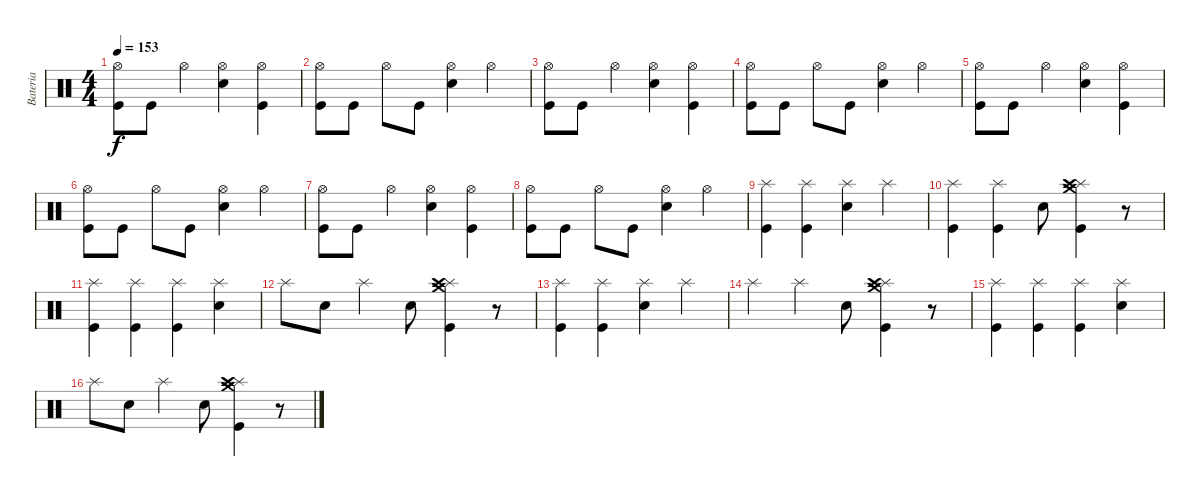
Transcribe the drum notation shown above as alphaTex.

\track ("Bateria" "Bateria") {instrument percussion}
\staff {score}
\articulation defaults
\ts (4 4)
\tempo 153
\clef neutral
\ks c
("Hi-Hat (open)" "Kick (hit)").8{dy f} "Kick (hit)".8 "Hi-Hat (open)".4 ("Hi-Hat (open)" "Snare (hit) 2").4 ("Hi-Hat (open)" "Kick (hit)").4 |
("Hi-Hat (open)" "Kick (hit)").8 "Kick (hit)".8 "Hi-Hat (open)".8 "Kick (hit)".8 ("Hi-Hat (open)" "Snare (hit) 2").4 "Hi-Hat (open)".4 |
("Hi-Hat (open)" "Kick (hit)").8 "Kick (hit)".8 "Hi-Hat (open)".4 ("Hi-Hat (open)" "Snare (hit) 2").4 ("Hi-Hat (open)" "Kick (hit)").4 |
("Hi-Hat (open)" "Kick (hit)").8 "Kick (hit)".8 "Hi-Hat (open)".8 "Kick (hit)".8 ("Hi-Hat (open)" "Snare (hit) 2").4 "Hi-Hat (open)".4 |
("Hi-Hat (open)" "Kick (hit)").8 "Kick (hit)".8 "Hi-Hat (open)".4 ("Hi-Hat (open)" "Snare (hit) 2").4 ("Hi-Hat (open)" "Kick (hit)").4 |
("Hi-Hat (open)" "Kick (hit)").8 "Kick (hit)".8 "Hi-Hat (open)".8 "Kick (hit)".8 ("Hi-Hat (open)" "Snare (hit) 2").4 "Hi-Hat (open)".4 |
("Hi-Hat (open)" "Kick (hit)").8 "Kick (hit)".8 "Hi-Hat (open)".4 ("Hi-Hat (open)" "Snare (hit) 2").4 ("Hi-Hat (open)" "Kick (hit)").4 |
("Hi-Hat (open)" "Kick (hit)").8 "Kick (hit)".8 "Hi-Hat (open)".8 "Kick (hit)".8 ("Hi-Hat (open)" "Snare (hit) 2").4 "Hi-Hat (open)".4 |
("Kick (hit)" "Splash (hit)").4 ("Kick (hit)" "Splash (hit)").4 ("Snare (hit) 2" "Splash (hit)").4 "Splash (hit)".4 |
("Splash (hit)" "Kick (hit)").4 ("Splash (hit)" "Kick (hit)").4 "Snare (hit) 2".8 ("Crash medium (hit)" "Splash (hit)" "Crash high (hit)" "Kick (hit)").4 r.8 |
("Kick (hit)" "Splash (hit)").4 ("Kick (hit)" "Splash (hit)").4 ("Kick (hit)" "Splash (hit)").4 ("Splash (hit)" "Snare (hit) 2").4 |
"Splash (hit)".8 "Snare (hit) 2".8 "Splash (hit)".4 "Snare (hit) 2".8 ("Crash medium (hit)" "Splash (hit)" "Crash high (hit)" "Kick (hit)").4 r.8 |
("Kick (hit)" "Splash (hit)").4 ("Kick (hit)" "Splash (hit)").4 ("Snare (hit) 2" "Splash (hit)").4 "Splash (hit)".4 |
"Splash (hit)".4 "Splash (hit)".4 "Snare (hit) 2".8 ("Crash medium (hit)" "Splash (hit)" "Crash high (hit)" "Kick (hit)").4 r.8 |
("Kick (hit)" "Splash (hit)").4 ("Kick (hit)" "Splash (hit)").4 ("Kick (hit)" "Splash (hit)").4 ("Splash (hit)" "Snare (hit) 2").4 |
"Splash (hit)".8 "Snare (hit) 2".8 "Splash (hit)".4 "Snare (hit) 2".8 ("Crash medium (hit)" "Splash (hit)" "Crash high (hit)" "Kick (hit)").4 r.8
